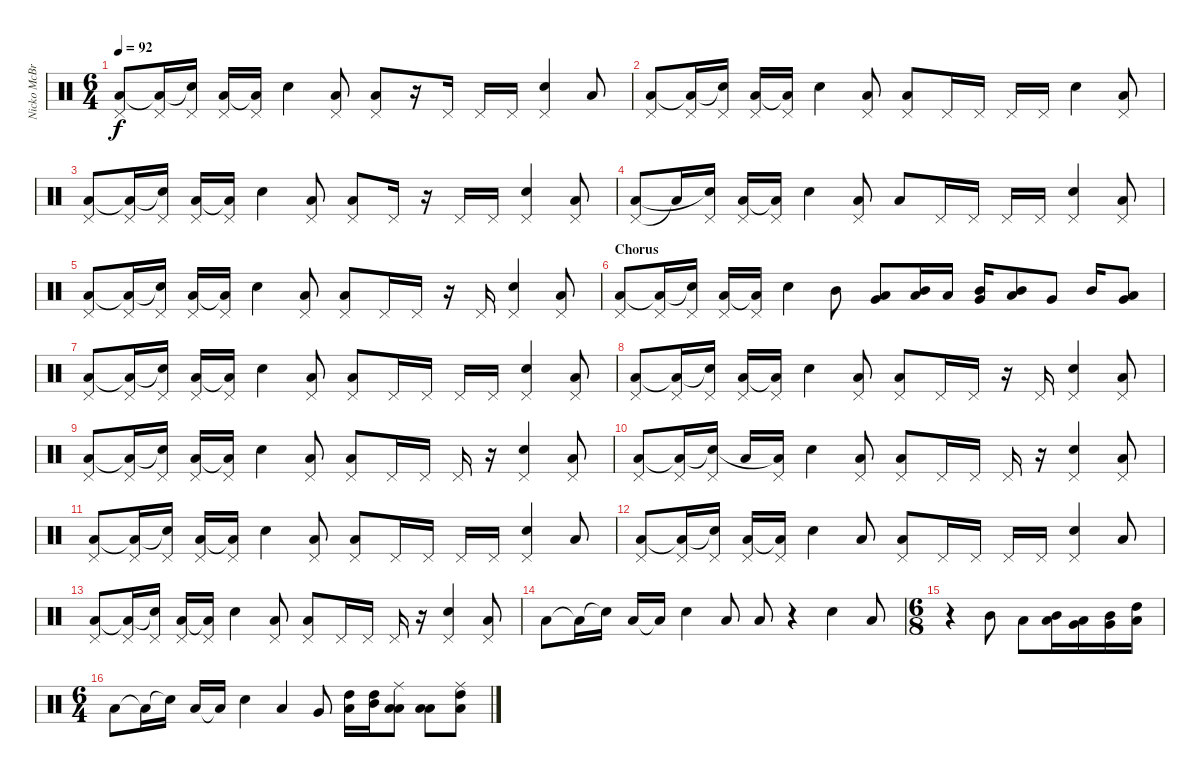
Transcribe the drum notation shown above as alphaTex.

\track ("Nicko McBrain" "Nicko McBr") {instrument percussion}
\staff {score}
\articulation defaults
\ts (6 4)
\tempo 92
\clef neutral
\ks c
("Pedal Hi-Hat (hit)" "Low Floor Tom (hit)").8{dy f} ("Pedal Hi-Hat (hit)" "Low Floor Tom (hit)"{t}).16 ("Pedal Hi-Hat (hit)" "Electric Snare (hit)"{t}).16 ("Pedal Hi-Hat (hit)" "Low Floor Tom (hit)").16 ("Pedal Hi-Hat (hit)" "Low Floor Tom (hit)"{t}).16 "Electric Snare (hit)".4 ("Pedal Hi-Hat (hit)" "Low Floor Tom (hit)").8 ("Pedal Hi-Hat (hit)" "Low Floor Tom (hit)").8 r.16 "Pedal Hi-Hat (hit)".16 "Pedal Hi-Hat (hit)".16 "Pedal Hi-Hat (hit)".16 ("Pedal Hi-Hat (hit)" "Electric Snare (hit)").4 "Low Floor Tom (hit)".8 |
("Pedal Hi-Hat (hit)" "Low Floor Tom (hit)").8 ("Pedal Hi-Hat (hit)" "Low Floor Tom (hit)"{t}).16 ("Pedal Hi-Hat (hit)" "Electric Snare (hit)"{t}).16 ("Pedal Hi-Hat (hit)" "Low Floor Tom (hit)").16 ("Pedal Hi-Hat (hit)" "Low Floor Tom (hit)"{t}).16 "Electric Snare (hit)".4 ("Pedal Hi-Hat (hit)" "Low Floor Tom (hit)").8 ("Pedal Hi-Hat (hit)" "Low Floor Tom (hit)").8 "Pedal Hi-Hat (hit)".16 "Pedal Hi-Hat (hit)".16 "Pedal Hi-Hat (hit)".16 "Pedal Hi-Hat (hit)".16 "Electric Snare (hit)".4 ("Pedal Hi-Hat (hit)" "Low Floor Tom (hit)").8 |
("Pedal Hi-Hat (hit)" "Low Floor Tom (hit)").8 ("Pedal Hi-Hat (hit)" "Low Floor Tom (hit)"{t}).16 ("Pedal Hi-Hat (hit)" "Electric Snare (hit)"{t}).16 ("Pedal Hi-Hat (hit)" "Low Floor Tom (hit)").16 ("Pedal Hi-Hat (hit)" "Low Floor Tom (hit)"{t}).16 "Electric Snare (hit)".4 ("Pedal Hi-Hat (hit)" "Low Floor Tom (hit)").8 ("Pedal Hi-Hat (hit)" "Low Floor Tom (hit)").8 "Pedal Hi-Hat (hit)".16 r.16 "Pedal Hi-Hat (hit)".16 "Pedal Hi-Hat (hit)".16 ("Pedal Hi-Hat (hit)" "Electric Snare (hit)").4 ("Pedal Hi-Hat (hit)" "Low Floor Tom (hit)").8 |
("Pedal Hi-Hat (hit)" "Low Floor Tom (hit)").8 "Low Floor Tom (hit)"{t}.16 ("Pedal Hi-Hat (hit)" "Electric Snare (hit)"{t}).16 ("Pedal Hi-Hat (hit)" "Low Floor Tom (hit)").16 ("Pedal Hi-Hat (hit)" "Low Floor Tom (hit)"{t}).16 "Electric Snare (hit)".4 ("Pedal Hi-Hat (hit)" "Low Floor Tom (hit)").8 "Low Floor Tom (hit)".8 "Pedal Hi-Hat (hit)".16 "Pedal Hi-Hat (hit)".16 "Pedal Hi-Hat (hit)".16 "Pedal Hi-Hat (hit)".16 ("Pedal Hi-Hat (hit)" "Electric Snare (hit)").4 ("Pedal Hi-Hat (hit)" "Low Floor Tom (hit)").8 |
("Pedal Hi-Hat (hit)" "Low Floor Tom (hit)").8 ("Pedal Hi-Hat (hit)" "Low Floor Tom (hit)"{t}).16 ("Pedal Hi-Hat (hit)" "Electric Snare (hit)"{t}).16 ("Pedal Hi-Hat (hit)" "Low Floor Tom (hit)").16 ("Pedal Hi-Hat (hit)" "Low Floor Tom (hit)"{t}).16 "Electric Snare (hit)".4 ("Pedal Hi-Hat (hit)" "Low Floor Tom (hit)").8 ("Pedal Hi-Hat (hit)" "Low Floor Tom (hit)").8 "Pedal Hi-Hat (hit)".16 "Pedal Hi-Hat (hit)".16 r.16 "Pedal Hi-Hat (hit)".16 ("Pedal Hi-Hat (hit)" "Electric Snare (hit)").4 ("Pedal Hi-Hat (hit)" "Low Floor Tom (hit)").8 |
\section ("" "Chorus")
("Pedal Hi-Hat (hit)" "Low Floor Tom (hit)").8 ("Pedal Hi-Hat (hit)" "Low Floor Tom (hit)"{t}).16 ("Pedal Hi-Hat (hit)" "Electric Snare (hit)"{t}).16 ("Pedal Hi-Hat (hit)" "Low Floor Tom (hit)").16 ("Pedal Hi-Hat (hit)" "Low Floor Tom (hit)"{t}).16 "Electric Snare (hit)".4 "Mid Tom (hit)".8 ("Very Low Tom (hit)" "Low Tom (hit)").8 ("Mid Tom (hit)" "Low Tom (hit)").16 "Low Tom (hit)".16 ("Very Low Tom (hit)" "Mid Tom (hit)").16 ("Mid Tom (hit)" "Low Tom (hit)").8 "Very Low Tom (hit)".8 "Mid Tom (hit)".16 ("Very Low Tom (hit)" "Low Tom (hit)").8 |
("Pedal Hi-Hat (hit)" "Low Floor Tom (hit)").8 ("Pedal Hi-Hat (hit)" "Low Floor Tom (hit)"{t}).16 ("Pedal Hi-Hat (hit)" "Electric Snare (hit)"{t}).16 ("Pedal Hi-Hat (hit)" "Low Floor Tom (hit)").16 ("Pedal Hi-Hat (hit)" "Low Floor Tom (hit)"{t}).16 "Electric Snare (hit)".4 ("Pedal Hi-Hat (hit)" "Low Floor Tom (hit)").8 ("Pedal Hi-Hat (hit)" "Low Floor Tom (hit)").8 "Pedal Hi-Hat (hit)".16 "Pedal Hi-Hat (hit)".16 "Pedal Hi-Hat (hit)".16 "Pedal Hi-Hat (hit)".16 ("Pedal Hi-Hat (hit)" "Electric Snare (hit)").4 ("Pedal Hi-Hat (hit)" "Low Floor Tom (hit)").8 |
("Pedal Hi-Hat (hit)" "Low Floor Tom (hit)").8 ("Pedal Hi-Hat (hit)" "Low Floor Tom (hit)"{t}).16 ("Pedal Hi-Hat (hit)" "Electric Snare (hit)"{t}).16 ("Pedal Hi-Hat (hit)" "Low Floor Tom (hit)").16 ("Pedal Hi-Hat (hit)" "Low Floor Tom (hit)"{t}).16 "Electric Snare (hit)".4 ("Pedal Hi-Hat (hit)" "Low Floor Tom (hit)").8 ("Pedal Hi-Hat (hit)" "Low Floor Tom (hit)").8 "Pedal Hi-Hat (hit)".16 "Pedal Hi-Hat (hit)".16 r.16 "Pedal Hi-Hat (hit)".16 ("Pedal Hi-Hat (hit)" "Electric Snare (hit)").4 ("Pedal Hi-Hat (hit)" "Low Floor Tom (hit)").8 |
("Pedal Hi-Hat (hit)" "Low Floor Tom (hit)").8 ("Pedal Hi-Hat (hit)" "Low Floor Tom (hit)"{t}).16 ("Pedal Hi-Hat (hit)" "Electric Snare (hit)"{t}).16 ("Pedal Hi-Hat (hit)" "Low Floor Tom (hit)").16 ("Pedal Hi-Hat (hit)" "Low Floor Tom (hit)"{t}).16 "Electric Snare (hit)".4 ("Pedal Hi-Hat (hit)" "Low Floor Tom (hit)").8 ("Pedal Hi-Hat (hit)" "Low Floor Tom (hit)").8 "Pedal Hi-Hat (hit)".16 "Pedal Hi-Hat (hit)".16 "Pedal Hi-Hat (hit)".16 r.16 ("Pedal Hi-Hat (hit)" "Electric Snare (hit)").4 ("Pedal Hi-Hat (hit)" "Low Floor Tom (hit)").8 |
("Pedal Hi-Hat (hit)" "Low Floor Tom (hit)").8 ("Pedal Hi-Hat (hit)" "Low Floor Tom (hit)"{t}).16 ("Pedal Hi-Hat (hit)" "Electric Snare (hit)"{t}).16 "Low Floor Tom (hit)".16 ("Pedal Hi-Hat (hit)" "Low Floor Tom (hit)"{t}).16 "Electric Snare (hit)".4 ("Pedal Hi-Hat (hit)" "Low Floor Tom (hit)").8 ("Pedal Hi-Hat (hit)" "Low Floor Tom (hit)").8 "Pedal Hi-Hat (hit)".16 "Pedal Hi-Hat (hit)".16 "Pedal Hi-Hat (hit)".16 r.16 ("Pedal Hi-Hat (hit)" "Electric Snare (hit)").4 ("Pedal Hi-Hat (hit)" "Low Floor Tom (hit)").8 |
("Pedal Hi-Hat (hit)" "Low Floor Tom (hit)").8 ("Pedal Hi-Hat (hit)" "Low Floor Tom (hit)"{t}).16 ("Pedal Hi-Hat (hit)" "Electric Snare (hit)"{t}).16 ("Pedal Hi-Hat (hit)" "Low Floor Tom (hit)").16 ("Pedal Hi-Hat (hit)" "Low Floor Tom (hit)"{t}).16 "Electric Snare (hit)".4 ("Pedal Hi-Hat (hit)" "Low Floor Tom (hit)").8 ("Pedal Hi-Hat (hit)" "Low Floor Tom (hit)").8 "Pedal Hi-Hat (hit)".16 "Pedal Hi-Hat (hit)".16 "Pedal Hi-Hat (hit)".16 "Pedal Hi-Hat (hit)".16 ("Pedal Hi-Hat (hit)" "Electric Snare (hit)").4 "Low Floor Tom (hit)".8 |
("Pedal Hi-Hat (hit)" "Low Floor Tom (hit)").8 ("Pedal Hi-Hat (hit)" "Low Floor Tom (hit)"{t}).16 ("Pedal Hi-Hat (hit)" "Electric Snare (hit)"{t}).16 ("Pedal Hi-Hat (hit)" "Low Floor Tom (hit)").16 ("Pedal Hi-Hat (hit)" "Low Floor Tom (hit)"{t}).16 "Electric Snare (hit)".4 "Low Floor Tom (hit)".8 ("Pedal Hi-Hat (hit)" "Low Floor Tom (hit)").8 "Pedal Hi-Hat (hit)".16 "Pedal Hi-Hat (hit)".16 "Pedal Hi-Hat (hit)".16 "Pedal Hi-Hat (hit)".16 ("Pedal Hi-Hat (hit)" "Electric Snare (hit)").4 "Low Floor Tom (hit)".8 |
("Pedal Hi-Hat (hit)" "Low Floor Tom (hit)").8 ("Pedal Hi-Hat (hit)" "Low Floor Tom (hit)"{t}).16 ("Pedal Hi-Hat (hit)" "Electric Snare (hit)"{t}).16 ("Pedal Hi-Hat (hit)" "Low Floor Tom (hit)").16 ("Pedal Hi-Hat (hit)" "Low Floor Tom (hit)"{t}).16 "Electric Snare (hit)".4 ("Pedal Hi-Hat (hit)" "Low Floor Tom (hit)").8 ("Pedal Hi-Hat (hit)" "Low Floor Tom (hit)").8 "Pedal Hi-Hat (hit)".16 "Pedal Hi-Hat (hit)".16 "Pedal Hi-Hat (hit)".16 r.16 ("Pedal Hi-Hat (hit)" "Electric Snare (hit)").4 ("Pedal Hi-Hat (hit)" "Low Floor Tom (hit)").8 |
"Low Floor Tom (hit)".8 "Low Floor Tom (hit)"{t}.16 "Electric Snare (hit)"{t}.16 "Low Floor Tom (hit)".16 "Low Floor Tom (hit)"{t}.16 "Electric Snare (hit)".4 "Low Floor Tom (hit)".8 "Low Floor Tom (hit)".8 r.4 "Electric Snare (hit)".4 "Low Floor Tom (hit)".8 |
\ts (6 8)
r.4 "Mid Tom (hit)".8 "Low Tom (hit)".8 ("Mid Tom (hit)" "Low Tom (hit)").16 ("Low Tom (hit)" "Very Low Tom (hit)").16 ("Very Low Tom (hit)" "Mid Tom (hit)").16 ("High Tom (hit)" "Low Floor Tom (hit)").16 |
\ts (6 4)
"Low Floor Tom (hit)".8 "Low Floor Tom (hit)"{t}.16 "Electric Snare (hit)"{t}.16 "Low Floor Tom (hit)".16 "Low Floor Tom (hit)"{t}.16 "Electric Snare (hit)".4 "Low Floor Tom (hit)".4 "Very Low Tom (hit)".8 ("High Tom (hit)" "Low Floor Tom (hit)").16 ("High Tom (hit)" "Mid Tom (hit)").16 ("Low Tom (hit)" "Low Tom (hit)" "Ride (middle)").8 ("Low Floor Tom (hit)" "Low Tom (hit)").8 ("High Tom (hit)" "Low Tom (hit)" "Ride (middle)").8
